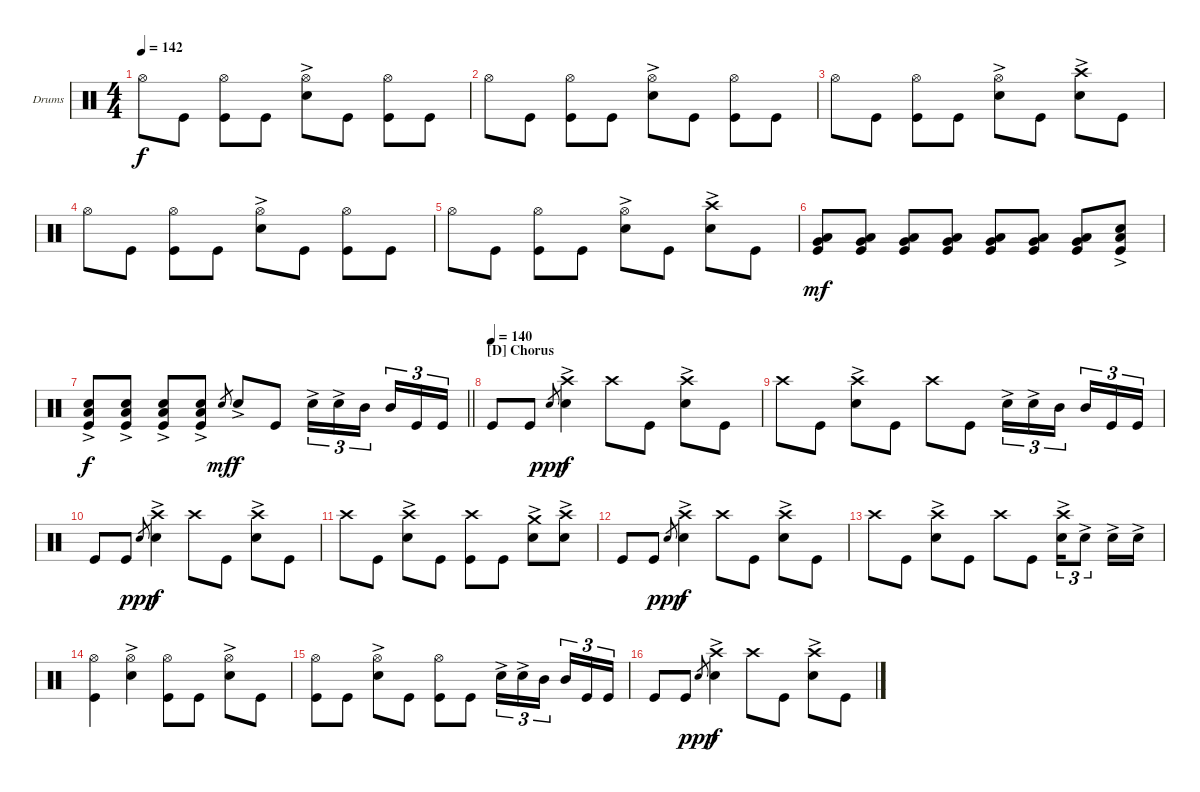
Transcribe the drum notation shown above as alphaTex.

\bracketExtendMode groupsimilarinstruments
\firstSystemTrackNameOrientation horizontal
\otherSystemsTrackNameOrientation horizontal
\track ("Drumkit" "Drums") {instrument percussion}
\staff {score}
\articulation defaults
\ts (4 4)
\tempo 142
\clef neutral
\ks c "Hi-Hat (open)".8{dy f} "Kick (hit)".8
("Hi-Hat (open)" "Kick (hit)").8 "Kick (hit)".8 ("Hi-Hat (open)" "Snare (hit) 2"{ac}).8 "Kick (hit)".8 ("Hi-Hat (open)" "Kick (hit)").8 "Kick (hit)".8 |
"Hi-Hat (open)".8 "Kick (hit)".8 ("Hi-Hat (open)" "Kick (hit)").8 "Kick (hit)".8 ("Hi-Hat (open)" "Snare (hit) 2"{ac}).8 "Kick (hit)".8 ("Hi-Hat (open)" "Kick (hit)").8 "Kick (hit)".8 |
"Hi-Hat (open)".8 "Kick (hit)".8 ("Hi-Hat (open)" "Kick (hit)").8 "Kick (hit)".8 ("Hi-Hat (open)" "Snare (hit) 2"{ac}).8 "Kick (hit)".8 ("Crash high (hit)" "Snare (hit) 2"{ac}).8 "Kick (hit)".8 |
"Hi-Hat (open)".8 "Kick (hit)".8 ("Hi-Hat (open)" "Kick (hit)").8 "Kick (hit)".8 ("Hi-Hat (open)" "Snare (hit) 2"{ac}).8 "Kick (hit)".8 ("Hi-Hat (open)" "Kick (hit)").8 "Kick (hit)".8 |
"Hi-Hat (open)".8 "Kick (hit)".8 ("Hi-Hat (open)" "Kick (hit)").8 "Kick (hit)".8 ("Hi-Hat (open)" "Snare (hit) 2"{ac}).8 "Kick (hit)".8 ("Crash high (hit)" "Snare (hit) 2"{ac}).8 "Kick (hit)".8 |
("Low Tom (hit)" "Very Low Tom (hit)" "Kick (hit)").8{dy mf} ("Low Tom (hit)" "Very Low Tom (hit)" "Kick (hit)").8 ("Low Tom (hit)" "Very Low Tom (hit)" "Kick (hit)").8 ("Low Tom (hit)" "Very Low Tom (hit)" "Kick (hit)").8 ("Low Tom (hit)" "Very Low Tom (hit)" "Kick (hit)").8 ("Low Tom (hit)" "Very Low Tom (hit)" "Kick (hit)").8 ("Low Tom (hit)" "Very Low Tom (hit)" "Kick (hit)").8 ("Low Tom (hit)" "Kick (hit)" "Snare (hit) 2"{ac}).8 |
\barLineRight lightlight
("Low Tom (hit)" "Snare (hit) 2"{ac} "Kick (hit)").8{dy f} ("Low Tom (hit)" "Snare (hit) 2"{ac} "Kick (hit)").8 ("Low Tom (hit)" "Snare (hit) 2"{ac} "Kick (hit)").8 ("Low Tom (hit)" "Snare (hit) 2"{ac} "Kick (hit)").8 "Snare (hit) 2".8{gr dy mf} "Snare (hit) 2"{ac}.8{dy f} "Kick (hit)".8 "Snare (hit) 2"{ac}.16{tu (3 2)} "Snare (hit) 2"{ac}.16{tu (3 2)} "Mid Tom (hit)".16{tu (3 2)} "Mid Tom (hit)".16{tu (3 2)} "Kick (hit)".16{tu (3 2)} "Kick (hit)".16{tu (3 2)} |
\section ("D" "Chorus")
\tempo (140)
"Kick (hit)".8 "Kick (hit)".8 "Snare (hit) 2".8{gr dy ppp} ("Crash high (hit)" "Snare (hit) 2"{ac}).4{dy f} "Crash high (hit)".8 "Kick (hit)".8 ("Crash high (hit)" "Snare (hit) 2"{ac}).8 "Kick (hit)".8 |
"Crash high (hit)".8 "Kick (hit)".8 ("Crash high (hit)" "Snare (hit) 2"{ac}).8 "Kick (hit)".8 "Crash high (hit)".8 "Kick (hit)".8 "Snare (hit) 2"{ac}.16{tu (3 2)} "Snare (hit) 2"{ac}.16{tu (3 2)} "Mid Tom (hit)".16{tu (3 2)} "Mid Tom (hit)".16{tu (3 2)} "Kick (hit)".16{tu (3 2)} "Kick (hit)".16{tu (3 2)} |
"Kick (hit)".8 "Kick (hit)".8 "Snare (hit) 2".8{gr dy ppp} ("Crash high (hit)" "Snare (hit) 2"{ac}).4{dy f} "Crash high (hit)".8 "Kick (hit)".8 ("Crash high (hit)" "Snare (hit) 2"{ac}).8 "Kick (hit)".8 |
"Crash high (hit)".8 "Kick (hit)".8 ("Crash high (hit)" "Snare (hit) 2"{ac}).8 "Kick (hit)".8 ("Crash high (hit)" "Kick (hit)").8 "Kick (hit)".8 ("Crash medium (hit)"{ac} "Snare (hit) 2"{ac}).8 ("Crash high (hit)" "Snare (hit) 2"{ac}).8 |
"Kick (hit)".8 "Kick (hit)".8 "Snare (hit) 2".8{gr dy ppp} ("Crash high (hit)" "Snare (hit) 2"{ac}).4{dy f} "Crash high (hit)".8 "Kick (hit)".8 ("Crash high (hit)" "Snare (hit) 2"{ac}).8 "Kick (hit)".8 |
"Crash high (hit)".8 "Kick (hit)".8 ("Crash high (hit)" "Snare (hit) 2"{ac}).8 "Kick (hit)".8 "Crash high (hit)".8 "Kick (hit)".8 ("Crash high (hit)" "Snare (hit) 2"{ac}).16{tu (3 2)} "Snare (hit) 2"{ac}.8{tu (3 2)} "Snare (hit) 2"{ac}.16 "Snare (hit) 2"{ac}.16 |
("Hi-Hat (open)" "Kick (hit)").4 ("Hi-Hat (open)" "Snare (hit) 2"{ac}).4 ("Hi-Hat (open)" "Kick (hit)").8 "Kick (hit)".8 ("Hi-Hat (open)" "Snare (hit) 2"{ac}).8 "Kick (hit)".8 |
("Hi-Hat (open)" "Kick (hit)").8 "Kick (hit)".8 ("Hi-Hat (open)" "Snare (hit) 2"{ac}).8 "Kick (hit)".8 ("Hi-Hat (open)" "Kick (hit)").8 "Kick (hit)".8 "Snare (hit) 2"{ac}.16{tu (3 2)} "Snare (hit) 2"{ac}.16{tu (3 2)} "Mid Tom (hit)".16{tu (3 2)} "Mid Tom (hit)".16{tu (3 2)} "Kick (hit)".16{tu (3 2)} "Kick (hit)".16{tu (3 2)} |
"Kick (hit)".8 "Kick (hit)".8 "Snare (hit) 2".8{gr dy ppp} ("Crash high (hit)" "Snare (hit) 2"{ac}).4{dy f} "Crash high (hit)".8 "Kick (hit)".8 ("Crash high (hit)" "Snare (hit) 2"{ac}).8 "Kick (hit)".8
